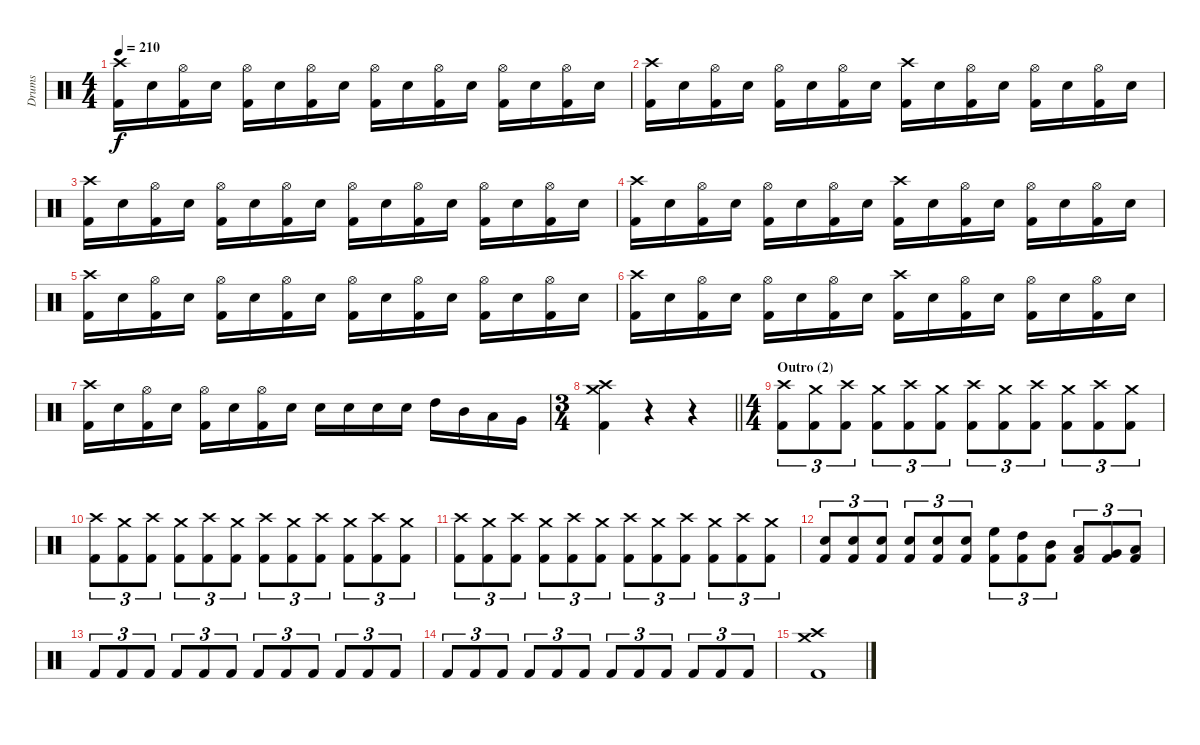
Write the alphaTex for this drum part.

\track ("Drums" "Drums") {instrument percussion}
\staff {score}
\articulation defaults
\ts (4 4)
\tempo 210
\clef neutral
\ks c
("Crash high (hit)" "Kick (hit) 2").16{dy f} "Electric Snare (hit)".16 ("Hi-Hat (open)" "Kick (hit) 2").16 "Electric Snare (hit)".16 ("Hi-Hat (open)" "Kick (hit) 2").16 "Electric Snare (hit)".16 ("Hi-Hat (open)" "Kick (hit) 2").16 "Electric Snare (hit)".16 ("Hi-Hat (open)" "Kick (hit) 2").16 "Electric Snare (hit)".16 ("Hi-Hat (open)" "Kick (hit) 2").16 "Electric Snare (hit)".16 ("Hi-Hat (open)" "Kick (hit) 2").16 "Electric Snare (hit)".16 ("Hi-Hat (open)" "Kick (hit) 2").16 "Electric Snare (hit)".16 |
("Crash high (hit)" "Kick (hit) 2").16 "Electric Snare (hit)".16 ("Hi-Hat (open)" "Kick (hit) 2").16 "Electric Snare (hit)".16 ("Hi-Hat (open)" "Kick (hit) 2").16 "Electric Snare (hit)".16 ("Hi-Hat (open)" "Kick (hit) 2").16 "Electric Snare (hit)".16 ("Crash high (hit)" "Kick (hit) 2").16 "Electric Snare (hit)".16 ("Hi-Hat (open)" "Kick (hit) 2").16 "Electric Snare (hit)".16 ("Hi-Hat (open)" "Kick (hit) 2").16 "Electric Snare (hit)".16 ("Hi-Hat (open)" "Kick (hit) 2").16 "Electric Snare (hit)".16 |
("Crash high (hit)" "Kick (hit) 2").16 "Electric Snare (hit)".16 ("Hi-Hat (open)" "Kick (hit) 2").16 "Electric Snare (hit)".16 ("Hi-Hat (open)" "Kick (hit) 2").16 "Electric Snare (hit)".16 ("Hi-Hat (open)" "Kick (hit) 2").16 "Electric Snare (hit)".16 ("Hi-Hat (open)" "Kick (hit) 2").16 "Electric Snare (hit)".16 ("Hi-Hat (open)" "Kick (hit) 2").16 "Electric Snare (hit)".16 ("Hi-Hat (open)" "Kick (hit) 2").16 "Electric Snare (hit)".16 ("Hi-Hat (open)" "Kick (hit) 2").16 "Electric Snare (hit)".16 |
("Crash high (hit)" "Kick (hit) 2").16 "Electric Snare (hit)".16 ("Hi-Hat (open)" "Kick (hit) 2").16 "Electric Snare (hit)".16 ("Hi-Hat (open)" "Kick (hit) 2").16 "Electric Snare (hit)".16 ("Hi-Hat (open)" "Kick (hit) 2").16 "Electric Snare (hit)".16 ("Crash high (hit)" "Kick (hit) 2").16 "Electric Snare (hit)".16 ("Hi-Hat (open)" "Kick (hit) 2").16 "Electric Snare (hit)".16 ("Hi-Hat (open)" "Kick (hit) 2").16 "Electric Snare (hit)".16 ("Hi-Hat (open)" "Kick (hit) 2").16 "Electric Snare (hit)".16 |
("Crash high (hit)" "Kick (hit) 2").16 "Electric Snare (hit)".16 ("Hi-Hat (open)" "Kick (hit) 2").16 "Electric Snare (hit)".16 ("Hi-Hat (open)" "Kick (hit) 2").16 "Electric Snare (hit)".16 ("Hi-Hat (open)" "Kick (hit) 2").16 "Electric Snare (hit)".16 ("Hi-Hat (open)" "Kick (hit) 2").16 "Electric Snare (hit)".16 ("Hi-Hat (open)" "Kick (hit) 2").16 "Electric Snare (hit)".16 ("Hi-Hat (open)" "Kick (hit) 2").16 "Electric Snare (hit)".16 ("Hi-Hat (open)" "Kick (hit) 2").16 "Electric Snare (hit)".16 |
("Crash high (hit)" "Kick (hit) 2").16 "Electric Snare (hit)".16 ("Hi-Hat (open)" "Kick (hit) 2").16 "Electric Snare (hit)".16 ("Hi-Hat (open)" "Kick (hit) 2").16 "Electric Snare (hit)".16 ("Hi-Hat (open)" "Kick (hit) 2").16 "Electric Snare (hit)".16 ("Crash high (hit)" "Kick (hit) 2").16 "Electric Snare (hit)".16 ("Hi-Hat (open)" "Kick (hit) 2").16 "Electric Snare (hit)".16 ("Hi-Hat (open)" "Kick (hit) 2").16 "Electric Snare (hit)".16 ("Hi-Hat (open)" "Kick (hit) 2").16 "Electric Snare (hit)".16 |
("Crash high (hit)" "Kick (hit) 2").16 "Electric Snare (hit)".16 ("Hi-Hat (open)" "Kick (hit) 2").16 "Electric Snare (hit)".16 ("Hi-Hat (open)" "Kick (hit) 2").16 "Electric Snare (hit)".16 ("Hi-Hat (open)" "Kick (hit) 2").16 "Electric Snare (hit)".16 "Electric Snare (hit)".16 "Electric Snare (hit)".16 "Electric Snare (hit)".16 "Electric Snare (hit)".16 "High Tom (hit)".16 "Mid Tom (hit)".16 "Low Tom (hit)".16 "Very Low Tom (hit)".16 |
\ts (3 4)
\barLineRight lightlight
("Crash high (hit)" "Crash medium (hit)" "Kick (hit) 2").4 r.4 r.4 |
\ts (4 4)
\section ("" "Outro (2)")
("Crash high (hit)" "Kick (hit) 2").8{tu (3 2)} ("Crash medium (hit)" "Kick (hit) 2").8{tu (3 2)} ("Crash high (hit)" "Kick (hit) 2").8{tu (3 2)} ("Crash medium (hit)" "Kick (hit) 2").8{tu (3 2)} ("Crash high (hit)" "Kick (hit) 2").8{tu (3 2)} ("Crash medium (hit)" "Kick (hit) 2").8{tu (3 2)} ("Crash high (hit)" "Kick (hit) 2").8{tu (3 2)} ("Crash medium (hit)" "Kick (hit) 2").8{tu (3 2)} ("Crash high (hit)" "Kick (hit) 2").8{tu (3 2)} ("Crash medium (hit)" "Kick (hit) 2").8{tu (3 2)} ("Crash high (hit)" "Kick (hit) 2").8{tu (3 2)} ("Crash medium (hit)" "Kick (hit) 2").8{tu (3 2)} |
("Crash high (hit)" "Kick (hit) 2").8{tu (3 2)} ("Crash medium (hit)" "Kick (hit) 2").8{tu (3 2)} ("Crash high (hit)" "Kick (hit) 2").8{tu (3 2)} ("Crash medium (hit)" "Kick (hit) 2").8{tu (3 2)} ("Crash high (hit)" "Kick (hit) 2").8{tu (3 2)} ("Crash medium (hit)" "Kick (hit) 2").8{tu (3 2)} ("Crash high (hit)" "Kick (hit) 2").8{tu (3 2)} ("Crash medium (hit)" "Kick (hit) 2").8{tu (3 2)} ("Crash high (hit)" "Kick (hit) 2").8{tu (3 2)} ("Crash medium (hit)" "Kick (hit) 2").8{tu (3 2)} ("Crash high (hit)" "Kick (hit) 2").8{tu (3 2)} ("Crash medium (hit)" "Kick (hit) 2").8{tu (3 2)} |
("Crash high (hit)" "Kick (hit) 2").8{tu (3 2)} ("Crash medium (hit)" "Kick (hit) 2").8{tu (3 2)} ("Crash high (hit)" "Kick (hit) 2").8{tu (3 2)} ("Crash medium (hit)" "Kick (hit) 2").8{tu (3 2)} ("Crash high (hit)" "Kick (hit) 2").8{tu (3 2)} ("Crash medium (hit)" "Kick (hit) 2").8{tu (3 2)} ("Crash high (hit)" "Kick (hit) 2").8{tu (3 2)} ("Crash medium (hit)" "Kick (hit) 2").8{tu (3 2)} ("Crash high (hit)" "Kick (hit) 2").8{tu (3 2)} ("Crash medium (hit)" "Kick (hit) 2").8{tu (3 2)} ("Crash high (hit)" "Kick (hit) 2").8{tu (3 2)} ("Crash medium (hit)" "Kick (hit) 2").8{tu (3 2)} |
("Electric Snare (hit)" "Kick (hit) 2").8{tu (3 2)} ("Electric Snare (hit)" "Kick (hit) 2").8{tu (3 2)} ("Electric Snare (hit)" "Kick (hit) 2").8{tu (3 2)} ("Electric Snare (hit)" "Kick (hit) 2").8{tu (3 2)} ("Electric Snare (hit)" "Kick (hit) 2").8{tu (3 2)} ("Electric Snare (hit)" "Kick (hit) 2").8{tu (3 2)} ("High Floor Tom (hit)" "Kick (hit) 2").8{tu (3 2)} ("High Tom (hit)" "Kick (hit) 2").8{tu (3 2)} ("Mid Tom (hit)" "Kick (hit) 2").8{tu (3 2)} ("Low Tom (hit)" "Kick (hit) 2").8{tu (3 2)} ("Very Low Tom (hit)" "Kick (hit) 2").8{tu (3 2)} ("Low Floor Tom (hit)" "Kick (hit) 2").8{tu (3 2)} |
"Kick (hit) 2".8{tu (3 2)} "Kick (hit) 2".8{tu (3 2)} "Kick (hit) 2".8{tu (3 2)} "Kick (hit) 2".8{tu (3 2)} "Kick (hit) 2".8{tu (3 2)} "Kick (hit) 2".8{tu (3 2)} "Kick (hit) 2".8{tu (3 2)} "Kick (hit) 2".8{tu (3 2)} "Kick (hit) 2".8{tu (3 2)} "Kick (hit) 2".8{tu (3 2)} "Kick (hit) 2".8{tu (3 2)} "Kick (hit) 2".8{tu (3 2)} |
"Kick (hit) 2".8{tu (3 2)} "Kick (hit) 2".8{tu (3 2)} "Kick (hit) 2".8{tu (3 2)} "Kick (hit) 2".8{tu (3 2)} "Kick (hit) 2".8{tu (3 2)} "Kick (hit) 2".8{tu (3 2)} "Kick (hit) 2".8{tu (3 2)} "Kick (hit) 2".8{tu (3 2)} "Kick (hit) 2".8{tu (3 2)} "Kick (hit) 2".8{tu (3 2)} "Kick (hit) 2".8{tu (3 2)} "Kick (hit) 2".8{tu (3 2)} |
("Crash high (hit)" "Crash medium (hit)" "Kick (hit) 2").1
